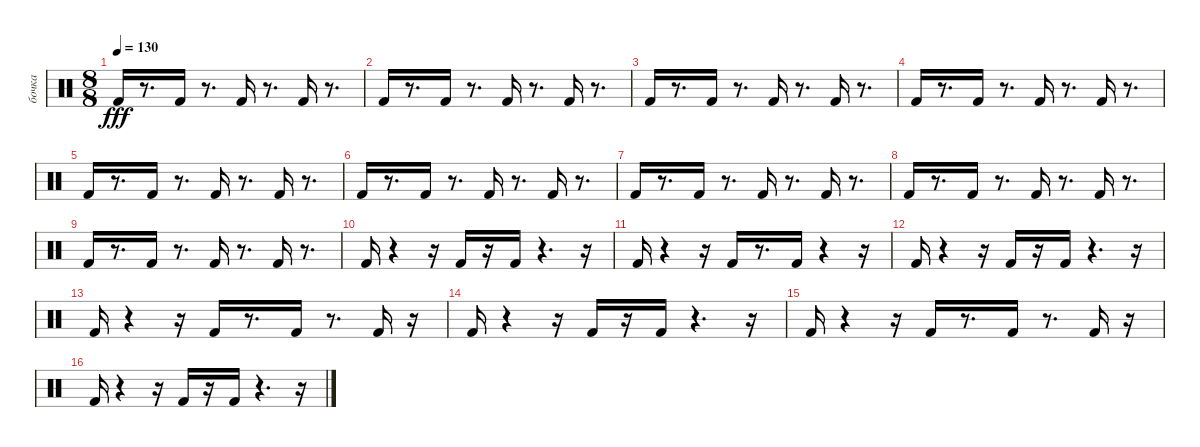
\track ("бочка" "бочка") {instrument percussion}
\staff {score}
\articulation defaults
\ts (8 8)
\tempo 130
\clef neutral
\ks c "Kick (hit) 2".16{dy fff}
r.8{d} "Kick (hit) 2".16 r.8{d} "Kick (hit) 2".16 r.8{d} "Kick (hit) 2".16 r.8{d} |
"Kick (hit) 2".16 r.8{d} "Kick (hit) 2".16 r.8{d} "Kick (hit) 2".16 r.8{d} "Kick (hit) 2".16 r.8{d} |
"Kick (hit) 2".16 r.8{d} "Kick (hit) 2".16 r.8{d} "Kick (hit) 2".16 r.8{d} "Kick (hit) 2".16 r.8{d} |
"Kick (hit) 2".16 r.8{d} "Kick (hit) 2".16 r.8{d} "Kick (hit) 2".16 r.8{d} "Kick (hit) 2".16 r.8{d} |
"Kick (hit) 2".16 r.8{d} "Kick (hit) 2".16 r.8{d} "Kick (hit) 2".16 r.8{d} "Kick (hit) 2".16 r.8{d} |
"Kick (hit) 2".16 r.8{d} "Kick (hit) 2".16 r.8{d} "Kick (hit) 2".16 r.8{d} "Kick (hit) 2".16 r.8{d} |
"Kick (hit) 2".16 r.8{d} "Kick (hit) 2".16 r.8{d} "Kick (hit) 2".16 r.8{d} "Kick (hit) 2".16 r.8{d} |
"Kick (hit) 2".16 r.8{d} "Kick (hit) 2".16 r.8{d} "Kick (hit) 2".16 r.8{d} "Kick (hit) 2".16 r.8{d} |
"Kick (hit) 2".16 r.8{d} "Kick (hit) 2".16 r.8{d} "Kick (hit) 2".16 r.8{d} "Kick (hit) 2".16 r.8{d} |
"Kick (hit) 2".16 r.4 r.16 "Kick (hit) 2".16 r.16 "Kick (hit) 2".16 r.4{d} r.16 |
"Kick (hit) 2".16 r.4 r.16 "Kick (hit) 2".16 r.8{d} "Kick (hit) 2".16 r.4 r.16 |
"Kick (hit) 2".16 r.4 r.16 "Kick (hit) 2".16 r.16 "Kick (hit) 2".16 r.4{d} r.16 |
"Kick (hit) 2".16 r.4 r.16 "Kick (hit) 2".16 r.8{d} "Kick (hit) 2".16 r.8{d} "Kick (hit) 2".16 r.16 |
"Kick (hit) 2".16 r.4 r.16 "Kick (hit) 2".16 r.16 "Kick (hit) 2".16 r.4{d} r.16 |
"Kick (hit) 2".16 r.4 r.16 "Kick (hit) 2".16 r.8{d} "Kick (hit) 2".16 r.8{d} "Kick (hit) 2".16 r.16 |
"Kick (hit) 2".16 r.4 r.16 "Kick (hit) 2".16 r.16 "Kick (hit) 2".16 r.4{d} r.16
